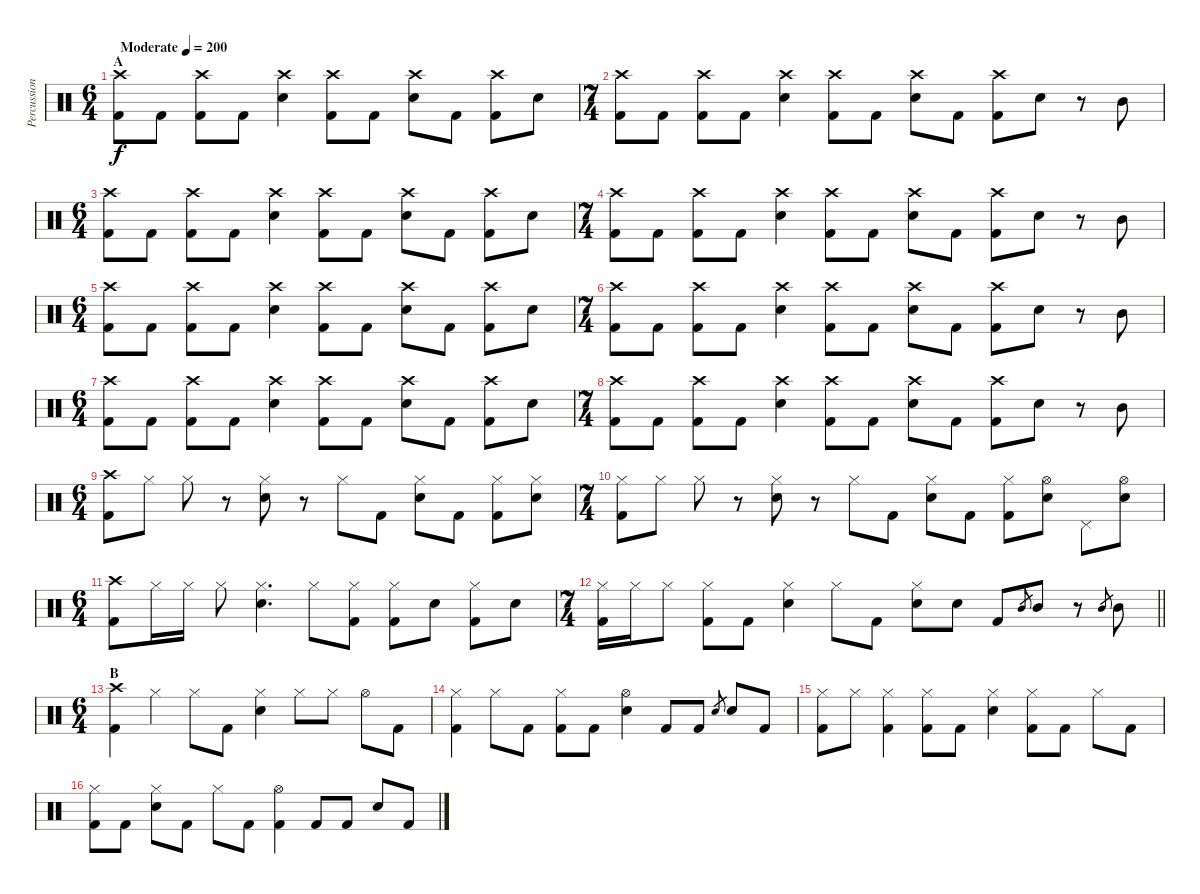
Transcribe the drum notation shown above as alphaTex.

\track ("Percussion" "Percussion") {instrument percussion}
\staff {score}
\articulation defaults
\ts (6 4)
\section ("" "A")
\tempo (200 "Moderate")
\clef neutral
\ks c
("Crash high (hit)" "Kick (hit) 2").8{dy f} "Kick (hit) 2".8 ("Crash high (hit)" "Kick (hit) 2").8 "Kick (hit) 2".8 ("Crash high (hit)" "Electric Snare (hit)").4 ("Crash high (hit)" "Kick (hit) 2").8 "Kick (hit) 2".8 ("Crash high (hit)" "Electric Snare (hit)").8 "Kick (hit) 2".8 ("Crash high (hit)" "Kick (hit) 2").8 "Electric Snare (hit)".8 |
\ts (7 4)
("Crash high (hit)" "Kick (hit) 2").8 "Kick (hit) 2".8 ("Crash high (hit)" "Kick (hit) 2").8 "Kick (hit) 2".8 ("Crash high (hit)" "Electric Snare (hit)").4 ("Crash high (hit)" "Kick (hit) 2").8 "Kick (hit) 2".8 ("Crash high (hit)" "Electric Snare (hit)").8 "Kick (hit) 2".8 ("Crash high (hit)" "Kick (hit) 2").8 "Electric Snare (hit)".8 r.8 "Mid Tom (hit)".8 |
\ts (6 4)
("Crash high (hit)" "Kick (hit) 2").8 "Kick (hit) 2".8 ("Crash high (hit)" "Kick (hit) 2").8 "Kick (hit) 2".8 ("Crash high (hit)" "Electric Snare (hit)").4 ("Crash high (hit)" "Kick (hit) 2").8 "Kick (hit) 2".8 ("Crash high (hit)" "Electric Snare (hit)").8 "Kick (hit) 2".8 ("Crash high (hit)" "Kick (hit) 2").8 "Electric Snare (hit)".8 |
\ts (7 4)
("Crash high (hit)" "Kick (hit) 2").8 "Kick (hit) 2".8 ("Crash high (hit)" "Kick (hit) 2").8 "Kick (hit) 2".8 ("Crash high (hit)" "Electric Snare (hit)").4 ("Crash high (hit)" "Kick (hit) 2").8 "Kick (hit) 2".8 ("Crash high (hit)" "Electric Snare (hit)").8 "Kick (hit) 2".8 ("Crash high (hit)" "Kick (hit) 2").8 "Electric Snare (hit)".8 r.8 "Mid Tom (hit)".8 |
\ts (6 4)
("Crash high (hit)" "Kick (hit) 2").8 "Kick (hit) 2".8 ("Crash high (hit)" "Kick (hit) 2").8 "Kick (hit) 2".8 ("Crash high (hit)" "Electric Snare (hit)").4 ("Crash high (hit)" "Kick (hit) 2").8 "Kick (hit) 2".8 ("Crash high (hit)" "Electric Snare (hit)").8 "Kick (hit) 2".8 ("Crash high (hit)" "Kick (hit) 2").8 "Electric Snare (hit)".8 |
\ts (7 4)
("Crash high (hit)" "Kick (hit) 2").8 "Kick (hit) 2".8 ("Crash high (hit)" "Kick (hit) 2").8 "Kick (hit) 2".8 ("Crash high (hit)" "Electric Snare (hit)").4 ("Crash high (hit)" "Kick (hit) 2").8 "Kick (hit) 2".8 ("Crash high (hit)" "Electric Snare (hit)").8 "Kick (hit) 2".8 ("Crash high (hit)" "Kick (hit) 2").8 "Electric Snare (hit)".8 r.8 "Mid Tom (hit)".8 |
\ts (6 4)
("Crash high (hit)" "Kick (hit) 2").8 "Kick (hit) 2".8 ("Crash high (hit)" "Kick (hit) 2").8 "Kick (hit) 2".8 ("Crash high (hit)" "Electric Snare (hit)").4 ("Crash high (hit)" "Kick (hit) 2").8 "Kick (hit) 2".8 ("Crash high (hit)" "Electric Snare (hit)").8 "Kick (hit) 2".8 ("Crash high (hit)" "Kick (hit) 2").8 "Electric Snare (hit)".8 |
\ts (7 4)
("Crash high (hit)" "Kick (hit) 2").8 "Kick (hit) 2".8 ("Crash high (hit)" "Kick (hit) 2").8 "Kick (hit) 2".8 ("Crash high (hit)" "Electric Snare (hit)").4 ("Crash high (hit)" "Kick (hit) 2").8 "Kick (hit) 2".8 ("Crash high (hit)" "Electric Snare (hit)").8 "Kick (hit) 2".8 ("Crash high (hit)" "Kick (hit) 2").8 "Electric Snare (hit)".8 r.8 "Mid Tom (hit)".8 |
\ts (6 4)
("Crash high (hit)" "Kick (hit) 2").8 "Hi-Hat (closed)".8 "Hi-Hat (closed)".8 r.8 ("Hi-Hat (closed)" "Electric Snare (hit)").8 r.8 "Hi-Hat (closed)".8 "Kick (hit) 2".8 ("Hi-Hat (closed)" "Electric Snare (hit)").8 "Kick (hit) 2".8 ("Hi-Hat (closed)" "Kick (hit) 2").8 ("Hi-Hat (closed)" "Electric Snare (hit)").8 |
\ts (7 4)
("Hi-Hat (closed)" "Kick (hit) 2").8 "Hi-Hat (closed)".8 "Hi-Hat (closed)".8 r.8 ("Hi-Hat (closed)" "Electric Snare (hit)").8 r.8 "Hi-Hat (closed)".8 "Kick (hit) 2".8 ("Hi-Hat (closed)" "Electric Snare (hit)").8 "Kick (hit) 2".8 ("Hi-Hat (closed)" "Kick (hit) 2").8 ("Hi-Hat (open)" "Electric Snare (hit)").8 "Pedal Hi-Hat (hit)".8 ("Hi-Hat (open)" "Electric Snare (hit)").8 |
\ts (6 4)
("Crash high (hit)" "Kick (hit) 2").8 "Hi-Hat (closed)".16 "Hi-Hat (closed)".16 "Hi-Hat (closed)".8 ("Hi-Hat (closed)" "Electric Snare (hit)").4{d} "Hi-Hat (closed)".8 ("Hi-Hat (closed)" "Kick (hit) 2").8 ("Hi-Hat (closed)" "Kick (hit) 2").8 "Electric Snare (hit)".8 ("Hi-Hat (closed)" "Kick (hit) 2").8 "Electric Snare (hit)".8 |
\ts (7 4)
\barLineRight lightlight
("Hi-Hat (closed)" "Kick (hit) 2").16 "Hi-Hat (closed)".16 "Hi-Hat (closed)".8 ("Hi-Hat (closed)" "Kick (hit) 2").8 "Kick (hit) 2".8 ("Hi-Hat (closed)" "Electric Snare (hit)").4 "Hi-Hat (closed)".8 "Kick (hit) 2".8 ("Hi-Hat (closed)" "Electric Snare (hit)").8 "Electric Snare (hit)".8 "Kick (hit) 2".8 "Mid Tom (hit)".8{gr} "Mid Tom (hit)".8 r.8 "Mid Tom (hit)".8{gr} "Mid Tom (hit)".8 |
\ts (6 4)
\section ("" "B")
("Crash high (hit)" "Kick (hit) 2").4 "Hi-Hat (closed)".4 "Hi-Hat (closed)".8 "Kick (hit) 2".8 ("Hi-Hat (closed)" "Electric Snare (hit)").4 "Hi-Hat (closed)".8 "Hi-Hat (closed)".8 "Hi-Hat (open)".8 "Kick (hit) 2".8 |
("Hi-Hat (closed)" "Kick (hit) 2").4 "Hi-Hat (closed)".8 "Kick (hit) 2".8 ("Hi-Hat (closed)" "Kick (hit) 2").8 "Kick (hit) 2".8 ("Hi-Hat (open)" "Electric Snare (hit)").4 "Kick (hit) 2".8 "Kick (hit) 2".8 "Electric Snare (hit)".8{gr} "Electric Snare (hit)".8 "Kick (hit) 2".8 |
("Hi-Hat (closed)" "Kick (hit) 2").8 "Hi-Hat (closed)".8 ("Hi-Hat (closed)" "Kick (hit) 2").4 ("Hi-Hat (closed)" "Kick (hit) 2").8 "Kick (hit) 2".8 ("Hi-Hat (closed)" "Electric Snare (hit)").4 ("Hi-Hat (closed)" "Kick (hit) 2").8 "Kick (hit) 2".8 "Hi-Hat (closed)".8 "Kick (hit) 2".8 |
("Hi-Hat (closed)" "Kick (hit) 2").8 "Kick (hit) 2".8 ("Hi-Hat (closed)" "Electric Snare (hit)").8 "Kick (hit) 2".8 "Hi-Hat (closed)".8 "Kick (hit) 2".8 ("Hi-Hat (open)" "Kick (hit) 2").4 "Kick (hit) 2".8 "Kick (hit) 2".8 "Electric Snare (hit)".8 "Kick (hit) 2".8
